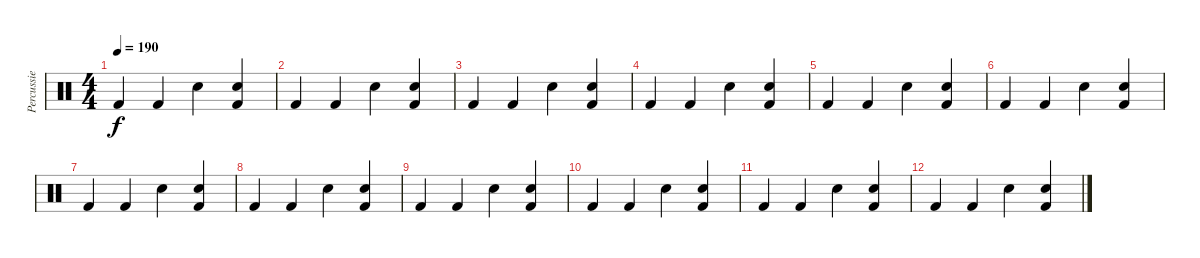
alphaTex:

\track ("Percussie" "Percussie") {instrument percussion}
\staff {score}
\articulation defaults
\ts (4 4)
\tempo 190
\clef neutral
\ks c "Kick (hit) 2".4{dy f} "Kick (hit) 2".4 "Snare (hit) 2".4
("Snare (hit) 2" "Kick (hit) 2").4 |
"Kick (hit) 2".4 "Kick (hit) 2".4 "Snare (hit) 2".4 ("Snare (hit) 2" "Kick (hit) 2").4 |
"Kick (hit) 2".4 "Kick (hit) 2".4 "Snare (hit) 2".4 ("Snare (hit) 2" "Kick (hit) 2").4 |
"Kick (hit) 2".4 "Kick (hit) 2".4 "Snare (hit) 2".4 ("Snare (hit) 2" "Kick (hit) 2").4 |
"Kick (hit) 2".4 "Kick (hit) 2".4 "Snare (hit) 2".4 ("Snare (hit) 2" "Kick (hit) 2").4 |
"Kick (hit) 2".4 "Kick (hit) 2".4 "Snare (hit) 2".4 ("Snare (hit) 2" "Kick (hit) 2").4 |
"Kick (hit) 2".4 "Kick (hit) 2".4 "Snare (hit) 2".4 ("Snare (hit) 2" "Kick (hit) 2").4 |
"Kick (hit) 2".4 "Kick (hit) 2".4 "Snare (hit) 2".4 ("Snare (hit) 2" "Kick (hit) 2").4 |
"Kick (hit) 2".4 "Kick (hit) 2".4 "Snare (hit) 2".4 ("Snare (hit) 2" "Kick (hit) 2").4 |
"Kick (hit) 2".4 "Kick (hit) 2".4 "Snare (hit) 2".4 ("Snare (hit) 2" "Kick (hit) 2").4 |
"Kick (hit) 2".4 "Kick (hit) 2".4 "Snare (hit) 2".4 ("Snare (hit) 2" "Kick (hit) 2").4 |
"Kick (hit) 2".4 "Kick (hit) 2".4 "Snare (hit) 2".4 ("Snare (hit) 2" "Kick (hit) 2").4
